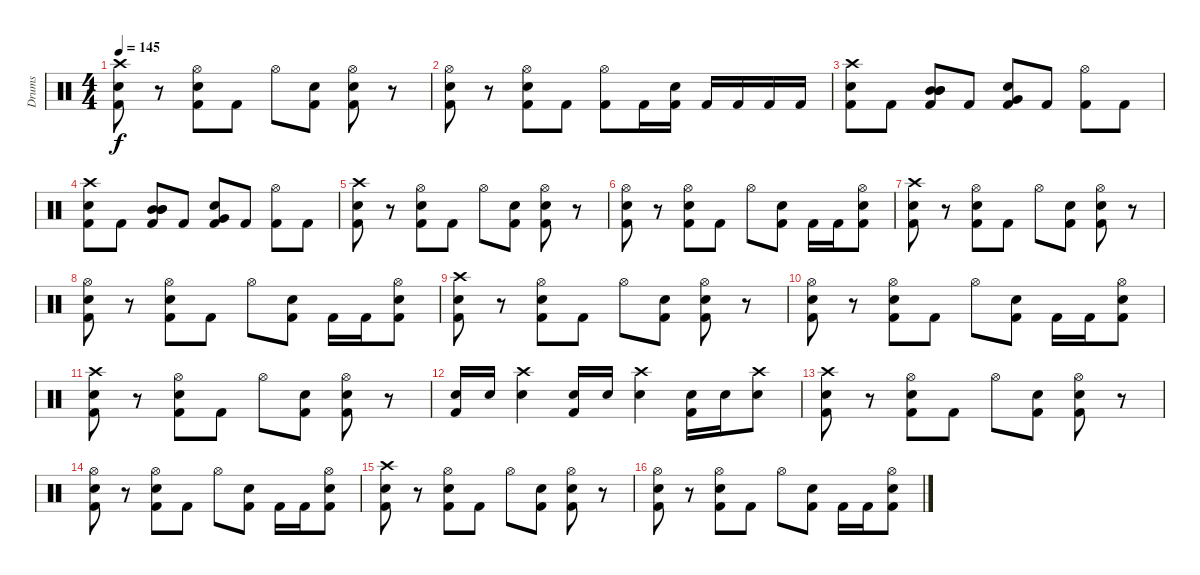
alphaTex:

\track ("Drums" "Drums") {instrument percussion}
\staff {score}
\articulation defaults
\ts (4 4)
\tempo 145
\clef neutral
\ks c
("Crash high (hit)" "Snare (hit) 2" "Kick (hit) 2").8{dy f} r.8 ("Snare (hit) 2" "Hi-Hat (open)" "Kick (hit) 2").8 "Kick (hit) 2".8 "Hi-Hat (open)".8 ("Snare (hit) 2" "Kick (hit) 2").8 ("Snare (hit) 2" "Hi-Hat (open)" "Kick (hit) 2").8 r.8 |
("Hi-Hat (open)" "Snare (hit) 2" "Kick (hit) 2").8 r.8 ("Snare (hit) 2" "Hi-Hat (open)" "Kick (hit) 2").8 "Kick (hit) 2".8 ("Hi-Hat (open)" "Kick (hit) 2").8 "Kick (hit) 2".16 ("Snare (hit) 2" "Kick (hit) 2").16 "Kick (hit) 2".16 "Kick (hit) 2".16 "Kick (hit) 2".16 "Kick (hit) 2".16 |
("Crash high (hit)" "Snare (hit) 2" "Kick (hit) 2").8 "Kick (hit) 2".8 ("Mid Tom (hit)" "Mid Tom (hit)" "Mid Tom (hit)" "Kick (hit) 2").8 "Kick (hit) 2".8 ("Snare (hit) 2" "Very Low Tom (hit)" "Kick (hit) 2").8 "Kick (hit) 2".8 ("Hi-Hat (open)" "Kick (hit) 2").8 "Kick (hit) 2".8 |
("Crash high (hit)" "Snare (hit) 2" "Kick (hit) 2").8 "Kick (hit) 2".8 ("Mid Tom (hit)" "Mid Tom (hit)" "Mid Tom (hit)" "Kick (hit) 2").8 "Kick (hit) 2".8 ("Snare (hit) 2" "Very Low Tom (hit)" "Kick (hit) 2").8 "Kick (hit) 2".8 ("Hi-Hat (open)" "Kick (hit) 2").8 "Kick (hit) 2".8 |
("Crash high (hit)" "Snare (hit) 2" "Kick (hit) 2").8 r.8 ("Snare (hit) 2" "Hi-Hat (open)" "Kick (hit) 2").8 "Kick (hit) 2".8 "Hi-Hat (open)".8 ("Snare (hit) 2" "Kick (hit) 2").8 ("Snare (hit) 2" "Hi-Hat (open)" "Kick (hit) 2").8 r.8 |
("Hi-Hat (open)" "Snare (hit) 2" "Kick (hit) 2").8 r.8 ("Snare (hit) 2" "Hi-Hat (open)" "Kick (hit) 2").8 "Kick (hit) 2".8 "Hi-Hat (open)".8 ("Snare (hit) 2" "Kick (hit) 2").8 "Kick (hit) 2".16 "Kick (hit) 2".16 ("Hi-Hat (open)" "Snare (hit) 2" "Kick (hit) 2").8 |
("Crash high (hit)" "Snare (hit) 2" "Kick (hit) 2").8 r.8 ("Snare (hit) 2" "Hi-Hat (open)" "Kick (hit) 2").8 "Kick (hit) 2".8 "Hi-Hat (open)".8 ("Snare (hit) 2" "Kick (hit) 2").8 ("Snare (hit) 2" "Hi-Hat (open)" "Kick (hit) 2").8 r.8 |
("Hi-Hat (open)" "Snare (hit) 2" "Kick (hit) 2").8 r.8 ("Snare (hit) 2" "Hi-Hat (open)" "Kick (hit) 2").8 "Kick (hit) 2".8 "Hi-Hat (open)".8 ("Snare (hit) 2" "Kick (hit) 2").8 "Kick (hit) 2".16 "Kick (hit) 2".16 ("Hi-Hat (open)" "Snare (hit) 2" "Kick (hit) 2").8 |
("Crash high (hit)" "Snare (hit) 2" "Kick (hit) 2").8 r.8 ("Snare (hit) 2" "Hi-Hat (open)" "Kick (hit) 2").8 "Kick (hit) 2".8 "Hi-Hat (open)".8 ("Snare (hit) 2" "Kick (hit) 2").8 ("Snare (hit) 2" "Hi-Hat (open)" "Kick (hit) 2").8 r.8 |
("Hi-Hat (open)" "Snare (hit) 2" "Kick (hit) 2").8 r.8 ("Snare (hit) 2" "Hi-Hat (open)" "Kick (hit) 2").8 "Kick (hit) 2".8 "Hi-Hat (open)".8 ("Snare (hit) 2" "Kick (hit) 2").8 "Kick (hit) 2".16 "Kick (hit) 2".16 ("Hi-Hat (open)" "Snare (hit) 2" "Kick (hit) 2").8 |
("Crash high (hit)" "Snare (hit) 2" "Kick (hit) 2").8 r.8 ("Snare (hit) 2" "Hi-Hat (open)" "Kick (hit) 2").8 "Kick (hit) 2".8 "Hi-Hat (open)".8 ("Snare (hit) 2" "Kick (hit) 2").8 ("Snare (hit) 2" "Hi-Hat (open)" "Kick (hit) 2").8 r.8 |
("Snare (hit) 2" "Kick (hit) 2").16 "Snare (hit) 2".16 ("Crash high (hit)" "Snare (hit) 2").4 ("Snare (hit) 2" "Kick (hit) 2").16 "Snare (hit) 2".16 ("Crash high (hit)" "Snare (hit) 2").4 ("Snare (hit) 2" "Kick (hit) 2").16 "Snare (hit) 2".16 ("Crash high (hit)" "Snare (hit) 2").8 |
("Crash high (hit)" "Snare (hit) 2" "Kick (hit) 2").8 r.8 ("Snare (hit) 2" "Hi-Hat (open)" "Kick (hit) 2").8 "Kick (hit) 2".8 "Hi-Hat (open)".8 ("Snare (hit) 2" "Kick (hit) 2").8 ("Snare (hit) 2" "Hi-Hat (open)" "Kick (hit) 2").8 r.8 |
("Hi-Hat (open)" "Snare (hit) 2" "Kick (hit) 2").8 r.8 ("Snare (hit) 2" "Hi-Hat (open)" "Kick (hit) 2").8 "Kick (hit) 2".8 "Hi-Hat (open)".8 ("Snare (hit) 2" "Kick (hit) 2").8 "Kick (hit) 2".16 "Kick (hit) 2".16 ("Hi-Hat (open)" "Snare (hit) 2" "Kick (hit) 2").8 |
("Crash high (hit)" "Snare (hit) 2" "Kick (hit) 2").8 r.8 ("Snare (hit) 2" "Hi-Hat (open)" "Kick (hit) 2").8 "Kick (hit) 2".8 "Hi-Hat (open)".8 ("Snare (hit) 2" "Kick (hit) 2").8 ("Snare (hit) 2" "Hi-Hat (open)" "Kick (hit) 2").8 r.8 |
("Hi-Hat (open)" "Snare (hit) 2" "Kick (hit) 2").8 r.8 ("Snare (hit) 2" "Hi-Hat (open)" "Kick (hit) 2").8 "Kick (hit) 2".8 "Hi-Hat (open)".8 ("Snare (hit) 2" "Kick (hit) 2").8 "Kick (hit) 2".16 "Kick (hit) 2".16 ("Hi-Hat (open)" "Snare (hit) 2" "Kick (hit) 2").8
